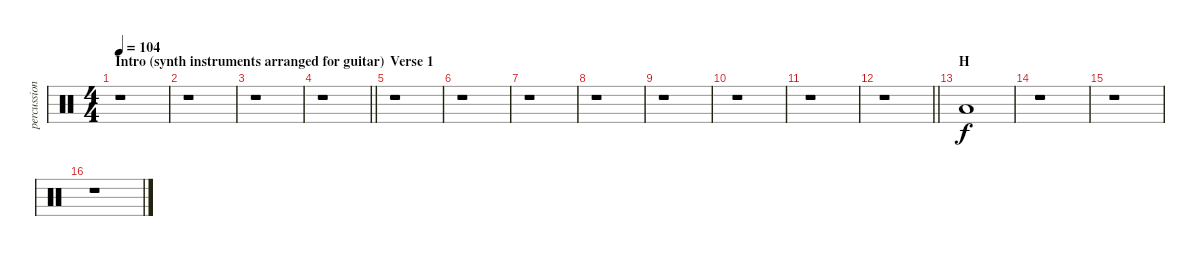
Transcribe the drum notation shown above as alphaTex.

\track ("percussion" "percussion") {instrument percussion}
\staff {score}
\articulation defaults
\ts (4 4)
\section ("" "Intro (synth instruments arranged for guitar)")
\tempo 104
\clef neutral
\ks c
r.1{dy f} |
r.1 |
r.1 |
\barLineRight lightlight
r.1 |
\section ("" "Verse 1")
r.1 |
r.1 |
r.1 |
r.1 |
r.1 |
r.1 |
r.1 |
\barLineRight lightlight
r.1 |
\section ("" "H")
"Low Floor Tom (hit)".1 |
r.1 |
r.1 |
r.1
